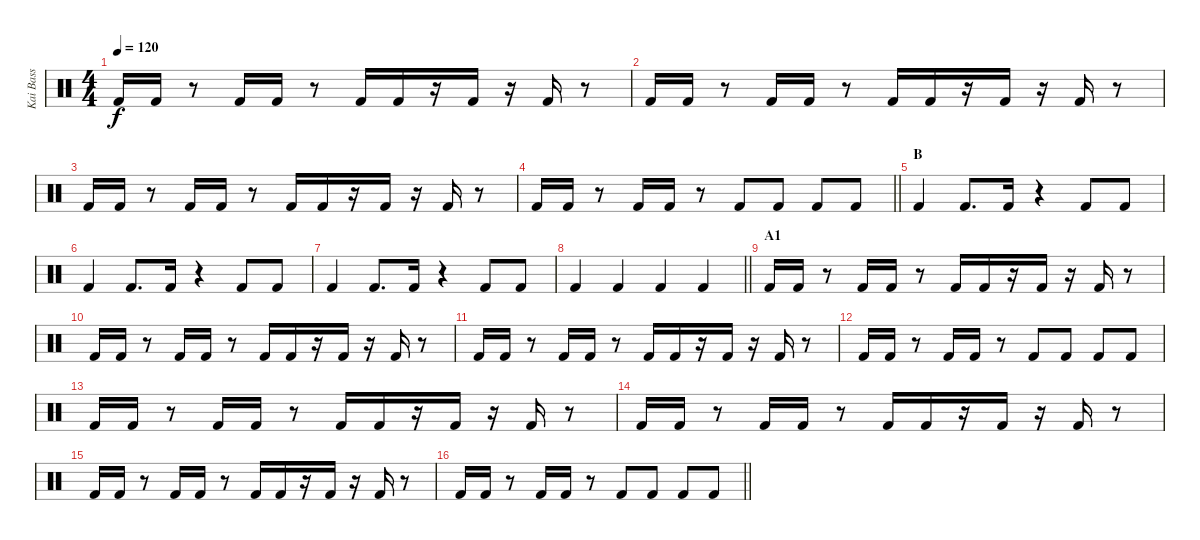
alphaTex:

\track ("Kai Bass" "Kai Bass") {instrument percussion}
\staff {score}
\articulation defaults
\ts (4 4)
\tempo 120
\clef neutral
\ks c "Kick (hit) 2".16{dy f} "Kick (hit) 2".16
r.8 "Kick (hit) 2".16 "Kick (hit) 2".16 r.8 "Kick (hit) 2".16 "Kick (hit) 2".16 r.16 "Kick (hit) 2".16 r.16 "Kick (hit) 2".16 r.8 |
"Kick (hit) 2".16 "Kick (hit) 2".16 r.8 "Kick (hit) 2".16 "Kick (hit) 2".16 r.8 "Kick (hit) 2".16 "Kick (hit) 2".16 r.16 "Kick (hit) 2".16 r.16 "Kick (hit) 2".16 r.8 |
"Kick (hit) 2".16 "Kick (hit) 2".16 r.8 "Kick (hit) 2".16 "Kick (hit) 2".16 r.8 "Kick (hit) 2".16 "Kick (hit) 2".16 r.16 "Kick (hit) 2".16 r.16 "Kick (hit) 2".16 r.8 |
\barLineRight lightlight "Kick (hit) 2".16 "Kick (hit) 2".16
r.8 "Kick (hit) 2".16 "Kick (hit) 2".16 r.8 "Kick (hit) 2".8 "Kick (hit) 2".8 "Kick (hit) 2".8 "Kick (hit) 2".8 |
\section ("" "B")
"Kick (hit) 2".4 "Kick (hit) 2".8{d} "Kick (hit) 2".16 r.4 "Kick (hit) 2".8 "Kick (hit) 2".8 |
"Kick (hit) 2".4 "Kick (hit) 2".8{d} "Kick (hit) 2".16 r.4 "Kick (hit) 2".8 "Kick (hit) 2".8 |
"Kick (hit) 2".4 "Kick (hit) 2".8{d} "Kick (hit) 2".16 r.4 "Kick (hit) 2".8 "Kick (hit) 2".8 |
\barLineRight lightlight "Kick (hit) 2".4 "Kick (hit) 2".4 "Kick (hit) 2".4 "Kick (hit) 2".4
|
\section ("" "A1")
"Kick (hit) 2".16 "Kick (hit) 2".16 r.8 "Kick (hit) 2".16 "Kick (hit) 2".16 r.8 "Kick (hit) 2".16 "Kick (hit) 2".16 r.16 "Kick (hit) 2".16 r.16 "Kick (hit) 2".16 r.8 |
"Kick (hit) 2".16 "Kick (hit) 2".16 r.8 "Kick (hit) 2".16 "Kick (hit) 2".16 r.8 "Kick (hit) 2".16 "Kick (hit) 2".16 r.16 "Kick (hit) 2".16 r.16 "Kick (hit) 2".16 r.8 |
"Kick (hit) 2".16 "Kick (hit) 2".16 r.8 "Kick (hit) 2".16 "Kick (hit) 2".16 r.8 "Kick (hit) 2".16 "Kick (hit) 2".16 r.16 "Kick (hit) 2".16 r.16 "Kick (hit) 2".16 r.8 |
"Kick (hit) 2".16 "Kick (hit) 2".16 r.8 "Kick (hit) 2".16 "Kick (hit) 2".16 r.8 "Kick (hit) 2".8 "Kick (hit) 2".8 "Kick (hit) 2".8 "Kick (hit) 2".8 |
"Kick (hit) 2".16 "Kick (hit) 2".16 r.8 "Kick (hit) 2".16 "Kick (hit) 2".16 r.8 "Kick (hit) 2".16 "Kick (hit) 2".16 r.16 "Kick (hit) 2".16 r.16 "Kick (hit) 2".16 r.8 |
"Kick (hit) 2".16 "Kick (hit) 2".16 r.8 "Kick (hit) 2".16 "Kick (hit) 2".16 r.8 "Kick (hit) 2".16 "Kick (hit) 2".16 r.16 "Kick (hit) 2".16 r.16 "Kick (hit) 2".16 r.8 |
"Kick (hit) 2".16 "Kick (hit) 2".16 r.8 "Kick (hit) 2".16 "Kick (hit) 2".16 r.8 "Kick (hit) 2".16 "Kick (hit) 2".16 r.16 "Kick (hit) 2".16 r.16 "Kick (hit) 2".16 r.8 |
\barLineRight lightlight "Kick (hit) 2".16 "Kick (hit) 2".16
r.8 "Kick (hit) 2".16 "Kick (hit) 2".16 r.8 "Kick (hit) 2".8 "Kick (hit) 2".8 "Kick (hit) 2".8 "Kick (hit) 2".8
